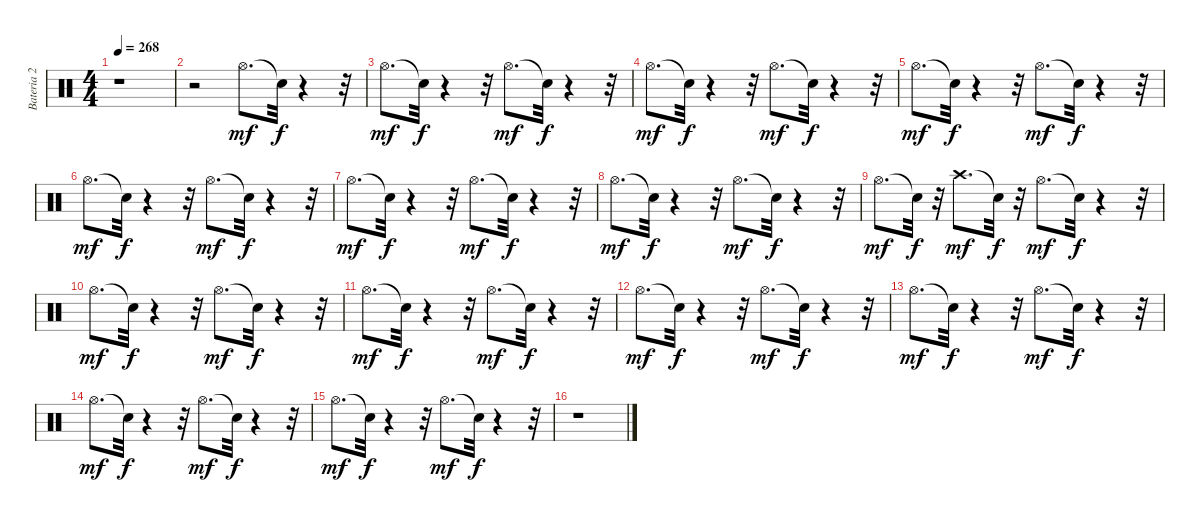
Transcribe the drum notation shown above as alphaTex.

\track ("Bateria 2" "Bateria 2") {instrument percussion}
\staff {score}
\articulation defaults
\ts (4 4)
\tempo 268
\clef neutral
\ks c
r.1{dy mf} |
r.2 "Hi-Hat (open)".8{d} "Snare (hit)"{t}.32{dy f} r.4 r.32 |
"Hi-Hat (open)".8{d dy mf} "Snare (hit)"{t}.32{dy f} r.4 r.32 "Hi-Hat (open)".8{d dy mf} "Snare (hit)"{t}.32{dy f} r.4 r.32 |
"Hi-Hat (open)".8{d dy mf} "Snare (hit)"{t}.32{dy f} r.4 r.32 "Hi-Hat (open)".8{d dy mf} "Snare (hit)"{t}.32{dy f} r.4 r.32 |
"Hi-Hat (open)".8{d dy mf} "Snare (hit)"{t}.32{dy f} r.4 r.32 "Hi-Hat (open)".8{d dy mf} "Snare (hit)"{t}.32{dy f} r.4 r.32 |
"Hi-Hat (open)".8{d dy mf} "Snare (hit)"{t}.32{dy f} r.4 r.32 "Hi-Hat (open)".8{d dy mf} "Snare (hit)"{t}.32{dy f} r.4 r.32 |
"Hi-Hat (open)".8{d dy mf} "Snare (hit)"{t}.32{dy f} r.4 r.32 "Hi-Hat (open)".8{d dy mf} "Snare (hit)"{t}.32{dy f} r.4 r.32 |
"Hi-Hat (open)".8{d dy mf} "Snare (hit)"{t}.32{dy f} r.4 r.32 "Hi-Hat (open)".8{d dy mf} "Snare (hit)"{t}.32{dy f} r.4 r.32 |
"Hi-Hat (open)".8{d dy mf} "Snare (hit)"{t}.32{dy f} r.32 "Crash high (hit)".8{d dy mf} "Snare (hit)"{t}.32{dy f} r.32 "Hi-Hat (open)".8{d dy mf} "Snare (hit)"{t}.32{dy f} r.4 r.32 |
"Hi-Hat (open)".8{d dy mf} "Snare (hit)"{t}.32{dy f} r.4 r.32 "Hi-Hat (open)".8{d dy mf} "Snare (hit)"{t}.32{dy f} r.4 r.32 |
"Hi-Hat (open)".8{d dy mf} "Snare (hit)"{t}.32{dy f} r.4 r.32 "Hi-Hat (open)".8{d dy mf} "Snare (hit)"{t}.32{dy f} r.4 r.32 |
"Hi-Hat (open)".8{d dy mf} "Snare (hit)"{t}.32{dy f} r.4 r.32 "Hi-Hat (open)".8{d dy mf} "Snare (hit)"{t}.32{dy f} r.4 r.32 |
"Hi-Hat (open)".8{d dy mf} "Snare (hit)"{t}.32{dy f} r.4 r.32 "Hi-Hat (open)".8{d dy mf} "Snare (hit)"{t}.32{dy f} r.4 r.32 |
"Hi-Hat (open)".8{d dy mf} "Snare (hit)"{t}.32{dy f} r.4 r.32 "Hi-Hat (open)".8{d dy mf} "Snare (hit)"{t}.32{dy f} r.4 r.32 |
"Hi-Hat (open)".8{d dy mf} "Snare (hit)"{t}.32{dy f} r.4 r.32 "Hi-Hat (open)".8{d dy mf} "Snare (hit)"{t}.32{dy f} r.4 r.32 |
r.1
